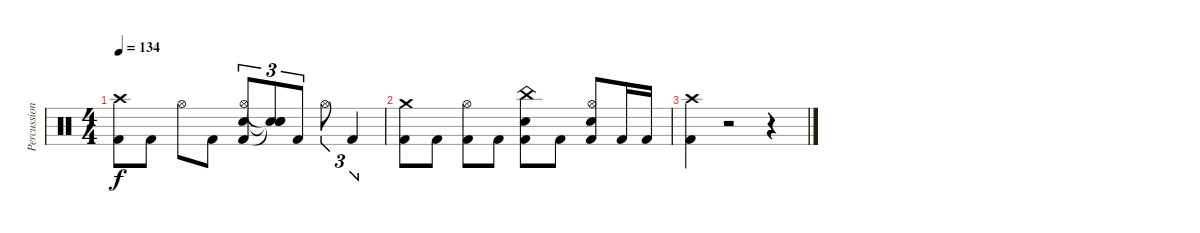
\track ("Percussion" "Percussion") {instrument percussion}
\staff {score}
\articulation defaults
\ts (4 4)
\tempo 134
\clef neutral
\ks c
("Crash high (hit)" "Kick (hit) 2").8{dy f} "Kick (hit) 2".8 "Hi-Hat (open)".8 "Kick (hit) 2".8 ("Hi-Hat (open)" "Snare (hit) 2" "Kick (hit) 2").8{tu (3 2)} ("Snare (hit)"{t} "Snare (hit)"{t} "Snare (hit)"{t}).8{tu (3 2)} "Kick (hit) 2".8{tu (3 2)} "Hi-Hat (open)".8{tu (3 2)} "Kick (hit) 2".4{tu (3 2)} |
("Crash medium (hit)" "Kick (hit) 2").8 "Kick (hit) 2".8 ("Hi-Hat (open)" "Kick (hit) 2").8 "Kick (hit) 2".8 ("China (hit)" "Snare (hit) 2" "Kick (hit) 2").8 "Kick (hit) 2".8 ("Hi-Hat (open)" "Snare (hit) 2" "Kick (hit) 2").8 "Kick (hit) 2".16 "Kick (hit) 2".16 |
("Kick (hit) 2" "Crash high (hit)").4 r.2 r.4
